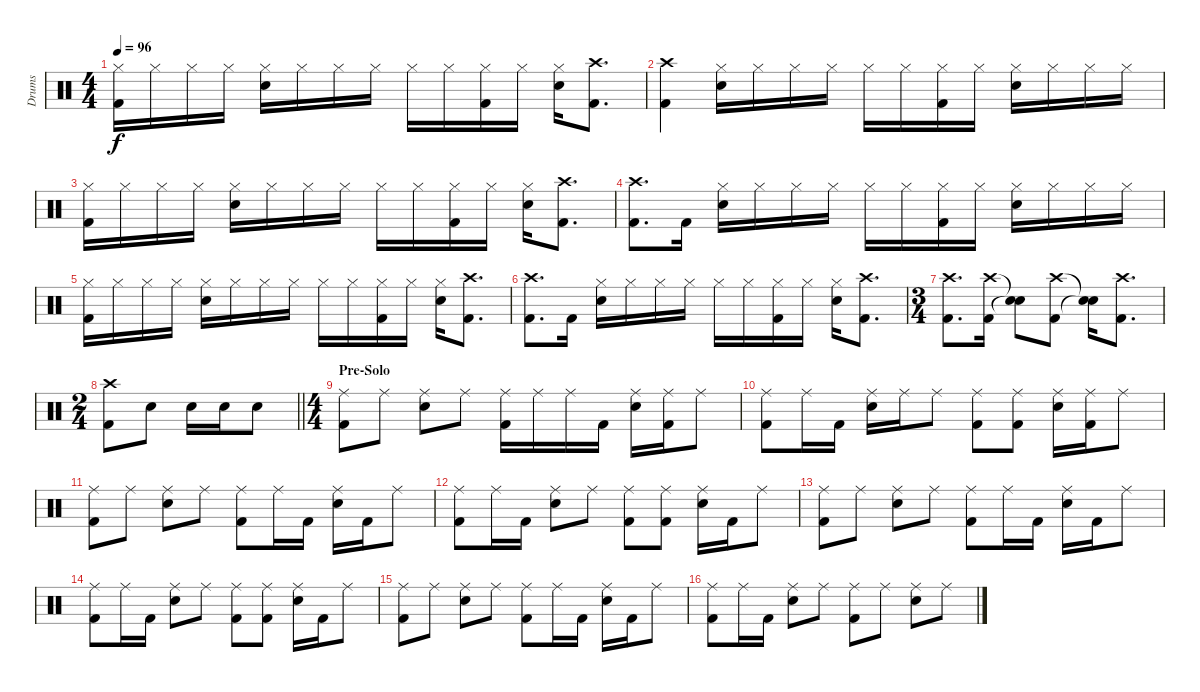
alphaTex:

\track ("Drums" "Drums") {instrument percussion}
\staff {score}
\articulation defaults
\ts (4 4)
\tempo 96
\clef neutral
\ks c
("Hi-Hat (closed)" "Kick (hit) 2").16{dy f} "Hi-Hat (closed)".16 "Hi-Hat (closed)".16 "Hi-Hat (closed)".16 ("Hi-Hat (closed)" "Electric Snare (hit)").16 "Hi-Hat (closed)".16 "Hi-Hat (closed)".16 "Hi-Hat (closed)".16 "Hi-Hat (closed)".16 "Hi-Hat (closed)".16 ("Hi-Hat (closed)" "Kick (hit) 2").16 "Hi-Hat (closed)".16 ("Hi-Hat (closed)" "Electric Snare (hit)").16 ("Crash high (hit)" "Kick (hit) 2").8{d} |
("Crash high (hit)" "Kick (hit) 2").4 ("Hi-Hat (closed)" "Electric Snare (hit)").16 "Hi-Hat (closed)".16 "Hi-Hat (closed)".16 "Hi-Hat (closed)".16 "Hi-Hat (closed)".16 "Hi-Hat (closed)".16 ("Hi-Hat (closed)" "Kick (hit) 2").16 "Hi-Hat (closed)".16 ("Hi-Hat (closed)" "Electric Snare (hit)").16 "Hi-Hat (closed)".16 "Hi-Hat (closed)".16 "Hi-Hat (closed)".16 |
("Hi-Hat (closed)" "Kick (hit) 2").16 "Hi-Hat (closed)".16 "Hi-Hat (closed)".16 "Hi-Hat (closed)".16 ("Hi-Hat (closed)" "Electric Snare (hit)").16 "Hi-Hat (closed)".16 "Hi-Hat (closed)".16 "Hi-Hat (closed)".16 "Hi-Hat (closed)".16 "Hi-Hat (closed)".16 ("Hi-Hat (closed)" "Kick (hit) 2").16 "Hi-Hat (closed)".16 ("Hi-Hat (closed)" "Electric Snare (hit)").16 ("Crash high (hit)" "Kick (hit) 2").8{d} |
("Crash high (hit)" "Kick (hit) 2").8{d} "Kick (hit) 2".16 ("Hi-Hat (closed)" "Electric Snare (hit)").16 "Hi-Hat (closed)".16 "Hi-Hat (closed)".16 "Hi-Hat (closed)".16 "Hi-Hat (closed)".16 "Hi-Hat (closed)".16 ("Hi-Hat (closed)" "Kick (hit) 2").16 "Hi-Hat (closed)".16 ("Hi-Hat (closed)" "Electric Snare (hit)").16 "Hi-Hat (closed)".16 "Hi-Hat (closed)".16 "Hi-Hat (closed)".16 |
("Hi-Hat (closed)" "Kick (hit) 2").16 "Hi-Hat (closed)".16 "Hi-Hat (closed)".16 "Hi-Hat (closed)".16 ("Hi-Hat (closed)" "Electric Snare (hit)").16 "Hi-Hat (closed)".16 "Hi-Hat (closed)".16 "Hi-Hat (closed)".16 "Hi-Hat (closed)".16 "Hi-Hat (closed)".16 ("Hi-Hat (closed)" "Kick (hit) 2").16 "Hi-Hat (closed)".16 ("Hi-Hat (closed)" "Electric Snare (hit)").16 ("Crash high (hit)" "Kick (hit) 2").8{d} |
("Crash high (hit)" "Kick (hit) 2").8{d} "Kick (hit) 2".16 ("Hi-Hat (closed)" "Electric Snare (hit)").16 "Hi-Hat (closed)".16 "Hi-Hat (closed)".16 "Hi-Hat (closed)".16 "Hi-Hat (closed)".16 "Hi-Hat (closed)".16 ("Hi-Hat (closed)" "Kick (hit) 2").16 "Hi-Hat (closed)".16 ("Hi-Hat (closed)" "Electric Snare (hit)").16 ("Crash high (hit)" "Kick (hit) 2").8{d} |
\ts (3 4)
("Crash high (hit)" "Kick (hit) 2").8{d} ("Crash high (hit)" "Kick (hit) 2").16 ("Snare (hit)"{t} "Snare (hit)"{t}).8 ("Crash high (hit)" "Kick (hit) 2").8 ("Snare (hit)"{t} "Snare (hit)"{t}).16 ("Crash high (hit)" "Kick (hit) 2").8{d} |
\ts (2 4)
\barLineRight lightlight
("Crash high (hit)" "Kick (hit) 2").8 "Electric Snare (hit)".8 "Electric Snare (hit)".16 "Electric Snare (hit)".16 "Electric Snare (hit)".8 |
\ts (4 4)
\section ("" "Pre-Solo")
("Ride (middle)" "Kick (hit) 2").8 "Ride (middle)".8 ("Ride (middle)" "Electric Snare (hit)").8 "Ride (middle)".8 ("Ride (middle)" "Kick (hit) 2").16 "Ride (middle)".16 "Ride (middle)".16 "Kick (hit) 2".16 ("Ride (middle)" "Electric Snare (hit)").16 ("Ride (middle)" "Kick (hit) 2").16 "Ride (middle)".8 |
("Ride (middle)" "Kick (hit) 2").8 "Ride (middle)".16 "Kick (hit) 2".16 ("Ride (middle)" "Electric Snare (hit)").16 "Ride (middle)".16 "Ride (middle)".8 ("Ride (middle)" "Kick (hit) 2").8 ("Ride (middle)" "Kick (hit) 2").8 ("Ride (middle)" "Electric Snare (hit)").16 ("Ride (middle)" "Kick (hit) 2").16 "Ride (middle)".8 |
("Ride (middle)" "Kick (hit) 2").8 "Ride (middle)".8 ("Ride (middle)" "Electric Snare (hit)").8 "Ride (middle)".8 ("Ride (middle)" "Kick (hit) 2").8 "Ride (middle)".16 "Kick (hit) 2".16 ("Ride (middle)" "Electric Snare (hit)").16 "Kick (hit) 2".16 "Ride (middle)".8 |
("Ride (middle)" "Kick (hit) 2").8 "Ride (middle)".16 "Kick (hit) 2".16 ("Ride (middle)" "Electric Snare (hit)").8 "Ride (middle)".8 ("Ride (middle)" "Kick (hit) 2").8 ("Ride (middle)" "Kick (hit) 2").8 ("Ride (middle)" "Electric Snare (hit)").16 "Kick (hit) 2".16 "Ride (middle)".8 |
("Ride (middle)" "Kick (hit) 2").8 "Ride (middle)".8 ("Ride (middle)" "Electric Snare (hit)").8 "Ride (middle)".8 ("Ride (middle)" "Kick (hit) 2").8 "Ride (middle)".16 "Kick (hit) 2".16 ("Ride (middle)" "Electric Snare (hit)").16 "Kick (hit) 2".16 "Ride (middle)".8 |
("Ride (middle)" "Kick (hit) 2").8 "Ride (middle)".16 "Kick (hit) 2".16 ("Ride (middle)" "Electric Snare (hit)").8 "Ride (middle)".8 ("Ride (middle)" "Kick (hit) 2").8 ("Ride (middle)" "Kick (hit) 2").8 ("Ride (middle)" "Electric Snare (hit)").16 "Kick (hit) 2".16 "Ride (middle)".8 |
("Ride (middle)" "Kick (hit) 2").8 "Ride (middle)".8 ("Ride (middle)" "Electric Snare (hit)").8 "Ride (middle)".8 ("Ride (middle)" "Kick (hit) 2").8 "Ride (middle)".16 "Kick (hit) 2".16 ("Ride (middle)" "Electric Snare (hit)").16 "Kick (hit) 2".16 "Ride (middle)".8 |
("Ride (middle)" "Kick (hit) 2").8 "Ride (middle)".16 "Kick (hit) 2".16 ("Ride (middle)" "Electric Snare (hit)").8 "Ride (middle)".8 ("Ride (middle)" "Kick (hit) 2").8 "Ride (middle)".8 ("Ride (middle)" "Electric Snare (hit)").8 "Ride (middle)".8
